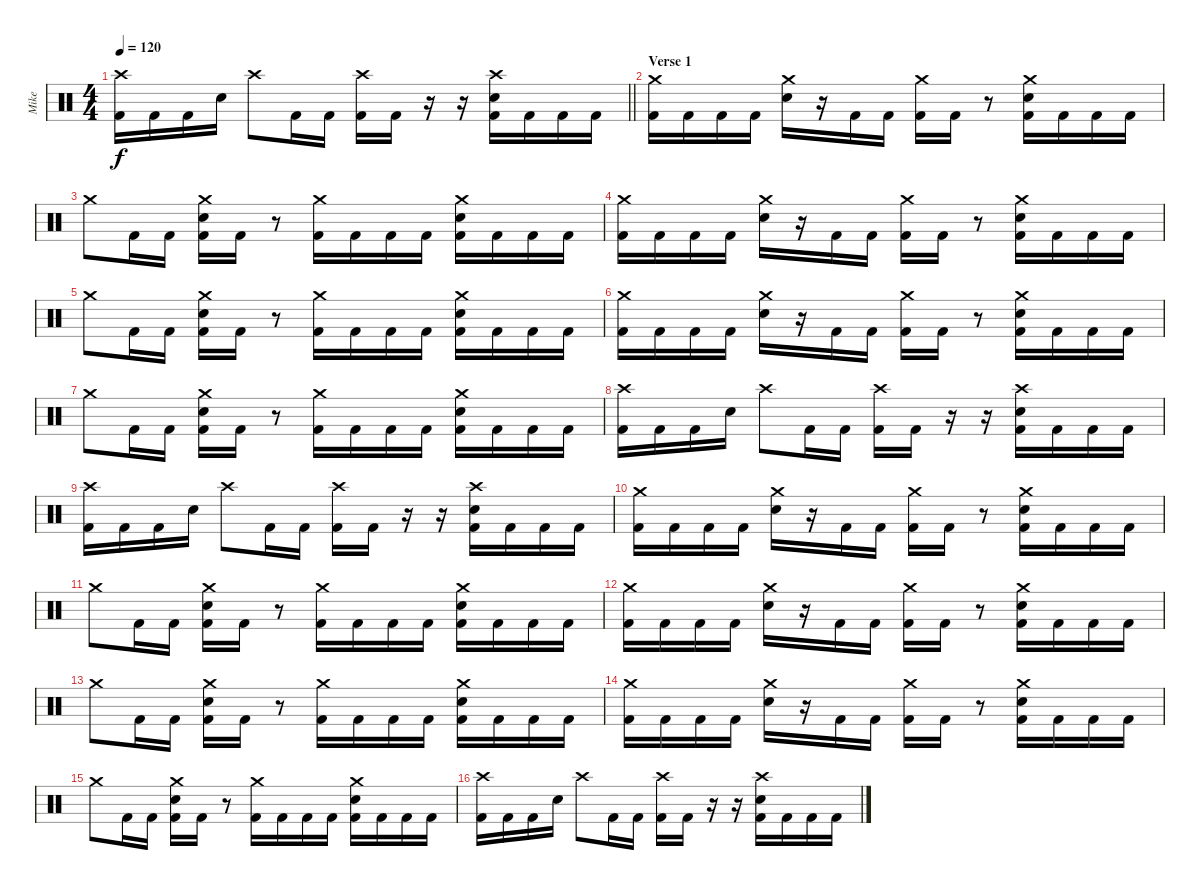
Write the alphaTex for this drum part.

\track ("Mike" "Mike") {instrument percussion}
\staff {score}
\articulation defaults
\ts (4 4)
\tempo 120
\clef neutral
\barLineRight lightlight
\ks c
("Crash high (hit)" "Kick (hit) 2").16{dy f} "Kick (hit) 2".16 "Kick (hit) 2".16 "Snare (hit) 2".16 "Crash high (hit)".8 "Kick (hit) 2".16 "Kick (hit) 2".16 ("Crash high (hit)" "Kick (hit) 2").16 "Kick (hit) 2".16 r.16 r.16 ("Crash high (hit)" "Snare (hit) 2" "Kick (hit) 2").16 "Kick (hit) 2".16 "Kick (hit) 2".16 "Kick (hit) 2".16 |
\section ("" "Verse 1")
("Crash medium (hit)" "Kick (hit) 2").16 "Kick (hit) 2".16 "Kick (hit) 2".16 "Kick (hit) 2".16 ("Crash medium (hit)" "Snare (hit) 2").16 r.16 "Kick (hit) 2".16 "Kick (hit) 2".16 ("Crash medium (hit)" "Kick (hit) 2").16 "Kick (hit) 2".16 r.8 ("Crash medium (hit)" "Snare (hit) 2" "Kick (hit) 2").16 "Kick (hit) 2".16 "Kick (hit) 2".16 "Kick (hit) 2".16 |
"Crash medium (hit)".8 "Kick (hit) 2".16 "Kick (hit) 2".16 ("Crash medium (hit)" "Snare (hit) 2" "Kick (hit) 2").16 "Kick (hit) 2".16 r.8 ("Crash medium (hit)" "Kick (hit) 2").16 "Kick (hit) 2".16 "Kick (hit) 2".16 "Kick (hit) 2".16 ("Crash medium (hit)" "Snare (hit) 2" "Kick (hit) 2").16 "Kick (hit) 2".16 "Kick (hit) 2".16 "Kick (hit) 2".16 |
("Crash medium (hit)" "Kick (hit) 2").16 "Kick (hit) 2".16 "Kick (hit) 2".16 "Kick (hit) 2".16 ("Crash medium (hit)" "Snare (hit) 2").16 r.16 "Kick (hit) 2".16 "Kick (hit) 2".16 ("Crash medium (hit)" "Kick (hit) 2").16 "Kick (hit) 2".16 r.8 ("Crash medium (hit)" "Snare (hit) 2" "Kick (hit) 2").16 "Kick (hit) 2".16 "Kick (hit) 2".16 "Kick (hit) 2".16 |
"Crash medium (hit)".8 "Kick (hit) 2".16 "Kick (hit) 2".16 ("Crash medium (hit)" "Snare (hit) 2" "Kick (hit) 2").16 "Kick (hit) 2".16 r.8 ("Crash medium (hit)" "Kick (hit) 2").16 "Kick (hit) 2".16 "Kick (hit) 2".16 "Kick (hit) 2".16 ("Crash medium (hit)" "Snare (hit) 2" "Kick (hit) 2").16 "Kick (hit) 2".16 "Kick (hit) 2".16 "Kick (hit) 2".16 |
("Crash medium (hit)" "Kick (hit) 2").16 "Kick (hit) 2".16 "Kick (hit) 2".16 "Kick (hit) 2".16 ("Crash medium (hit)" "Snare (hit) 2").16 r.16 "Kick (hit) 2".16 "Kick (hit) 2".16 ("Crash medium (hit)" "Kick (hit) 2").16 "Kick (hit) 2".16 r.8 ("Crash medium (hit)" "Snare (hit) 2" "Kick (hit) 2").16 "Kick (hit) 2".16 "Kick (hit) 2".16 "Kick (hit) 2".16 |
"Crash medium (hit)".8 "Kick (hit) 2".16 "Kick (hit) 2".16 ("Crash medium (hit)" "Snare (hit) 2" "Kick (hit) 2").16 "Kick (hit) 2".16 r.8 ("Crash medium (hit)" "Kick (hit) 2").16 "Kick (hit) 2".16 "Kick (hit) 2".16 "Kick (hit) 2".16 ("Crash medium (hit)" "Snare (hit) 2" "Kick (hit) 2").16 "Kick (hit) 2".16 "Kick (hit) 2".16 "Kick (hit) 2".16 |
("Crash high (hit)" "Kick (hit) 2").16 "Kick (hit) 2".16 "Kick (hit) 2".16 "Snare (hit) 2".16 "Crash high (hit)".8 "Kick (hit) 2".16 "Kick (hit) 2".16 ("Crash high (hit)" "Kick (hit) 2").16 "Kick (hit) 2".16 r.16 r.16 ("Crash high (hit)" "Snare (hit) 2" "Kick (hit) 2").16 "Kick (hit) 2".16 "Kick (hit) 2".16 "Kick (hit) 2".16 |
("Crash high (hit)" "Kick (hit) 2").16 "Kick (hit) 2".16 "Kick (hit) 2".16 "Snare (hit) 2".16 "Crash high (hit)".8 "Kick (hit) 2".16 "Kick (hit) 2".16 ("Crash high (hit)" "Kick (hit) 2").16 "Kick (hit) 2".16 r.16 r.16 ("Crash high (hit)" "Snare (hit) 2" "Kick (hit) 2").16 "Kick (hit) 2".16 "Kick (hit) 2".16 "Kick (hit) 2".16 |
("Crash medium (hit)" "Kick (hit) 2").16 "Kick (hit) 2".16 "Kick (hit) 2".16 "Kick (hit) 2".16 ("Crash medium (hit)" "Snare (hit) 2").16 r.16 "Kick (hit) 2".16 "Kick (hit) 2".16 ("Crash medium (hit)" "Kick (hit) 2").16 "Kick (hit) 2".16 r.8 ("Crash medium (hit)" "Snare (hit) 2" "Kick (hit) 2").16 "Kick (hit) 2".16 "Kick (hit) 2".16 "Kick (hit) 2".16 |
"Crash medium (hit)".8 "Kick (hit) 2".16 "Kick (hit) 2".16 ("Crash medium (hit)" "Snare (hit) 2" "Kick (hit) 2").16 "Kick (hit) 2".16 r.8 ("Crash medium (hit)" "Kick (hit) 2").16 "Kick (hit) 2".16 "Kick (hit) 2".16 "Kick (hit) 2".16 ("Crash medium (hit)" "Snare (hit) 2" "Kick (hit) 2").16 "Kick (hit) 2".16 "Kick (hit) 2".16 "Kick (hit) 2".16 |
("Crash medium (hit)" "Kick (hit) 2").16 "Kick (hit) 2".16 "Kick (hit) 2".16 "Kick (hit) 2".16 ("Crash medium (hit)" "Snare (hit) 2").16 r.16 "Kick (hit) 2".16 "Kick (hit) 2".16 ("Crash medium (hit)" "Kick (hit) 2").16 "Kick (hit) 2".16 r.8 ("Crash medium (hit)" "Snare (hit) 2" "Kick (hit) 2").16 "Kick (hit) 2".16 "Kick (hit) 2".16 "Kick (hit) 2".16 |
"Crash medium (hit)".8 "Kick (hit) 2".16 "Kick (hit) 2".16 ("Crash medium (hit)" "Snare (hit) 2" "Kick (hit) 2").16 "Kick (hit) 2".16 r.8 ("Crash medium (hit)" "Kick (hit) 2").16 "Kick (hit) 2".16 "Kick (hit) 2".16 "Kick (hit) 2".16 ("Crash medium (hit)" "Snare (hit) 2" "Kick (hit) 2").16 "Kick (hit) 2".16 "Kick (hit) 2".16 "Kick (hit) 2".16 |
("Crash medium (hit)" "Kick (hit) 2").16 "Kick (hit) 2".16 "Kick (hit) 2".16 "Kick (hit) 2".16 ("Crash medium (hit)" "Snare (hit) 2").16 r.16 "Kick (hit) 2".16 "Kick (hit) 2".16 ("Crash medium (hit)" "Kick (hit) 2").16 "Kick (hit) 2".16 r.8 ("Crash medium (hit)" "Snare (hit) 2" "Kick (hit) 2").16 "Kick (hit) 2".16 "Kick (hit) 2".16 "Kick (hit) 2".16 |
"Crash medium (hit)".8 "Kick (hit) 2".16 "Kick (hit) 2".16 ("Crash medium (hit)" "Snare (hit) 2" "Kick (hit) 2").16 "Kick (hit) 2".16 r.8 ("Crash medium (hit)" "Kick (hit) 2").16 "Kick (hit) 2".16 "Kick (hit) 2".16 "Kick (hit) 2".16 ("Crash medium (hit)" "Snare (hit) 2" "Kick (hit) 2").16 "Kick (hit) 2".16 "Kick (hit) 2".16 "Kick (hit) 2".16 |
("Crash high (hit)" "Kick (hit) 2").16 "Kick (hit) 2".16 "Kick (hit) 2".16 "Snare (hit) 2".16 "Crash high (hit)".8 "Kick (hit) 2".16 "Kick (hit) 2".16 ("Crash high (hit)" "Kick (hit) 2").16 "Kick (hit) 2".16 r.16 r.16 ("Crash high (hit)" "Snare (hit) 2" "Kick (hit) 2").16 "Kick (hit) 2".16 "Kick (hit) 2".16 "Kick (hit) 2".16
